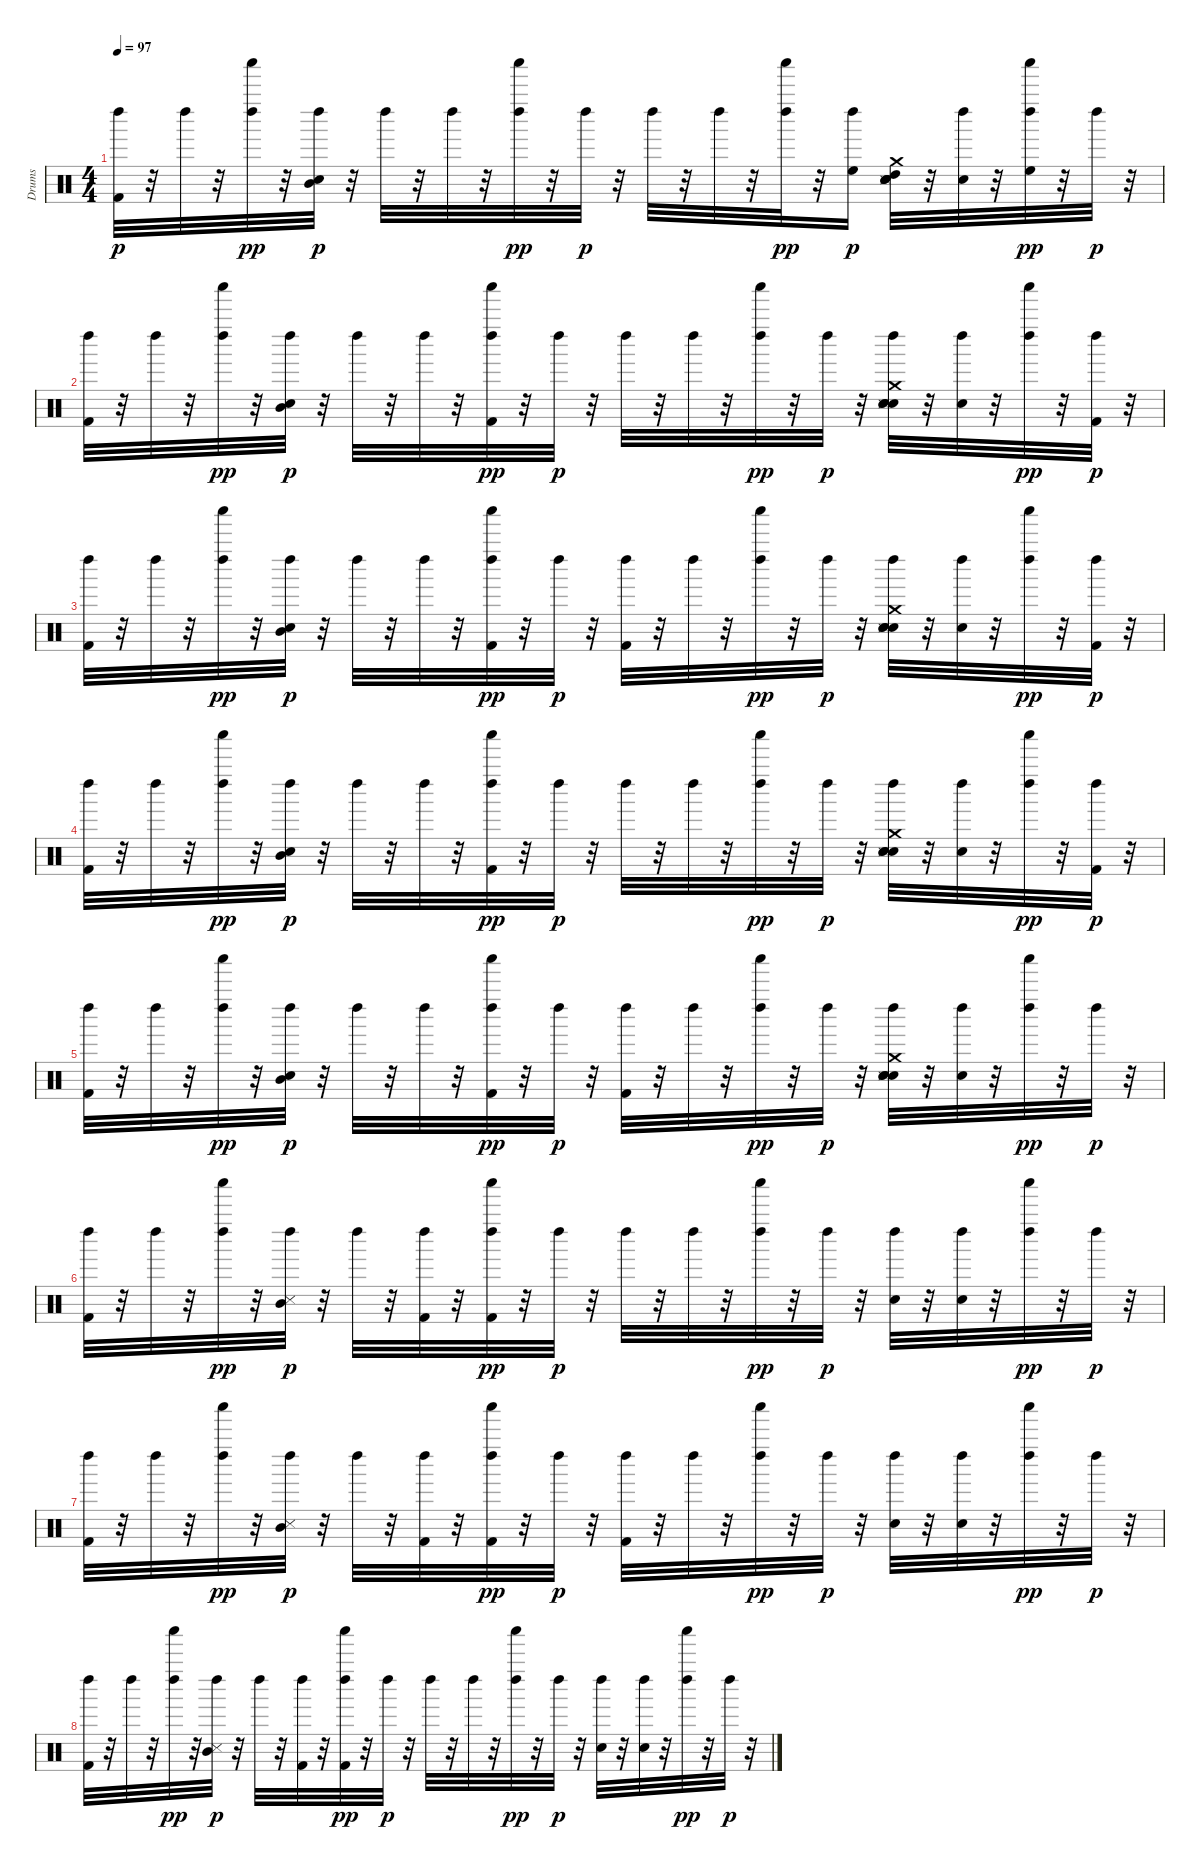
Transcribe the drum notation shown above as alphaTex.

\track ("Drums" "Drums") {instrument percussion}
\staff {score}
\articulation defaults
\ts (4 4)
\tempo 97
\clef neutral
\ks c
("Kick (hit) 2" "Left Maraca (hit)").32{dy p} r.32 "Left Maraca (hit)".32 r.32 ("Shaker (hit)" "Left Maraca (hit)").32{dy pp} r.32 ("Snare (hit) 2" "Mid Tom (hit)" "Left Maraca (hit)").32{dy p} r.32 "Left Maraca (hit)".32 r.32 "Left Maraca (hit)".32 r.32 ("Shaker (hit)" "Left Maraca (hit)").32{dy pp} r.32 "Left Maraca (hit)".32{dy p} r.32 "Left Maraca (hit)".32 r.32 "Left Maraca (hit)".32 r.32 ("Shaker (hit)" "Left Maraca (hit)").32{dy pp} r.32 ("High Floor Tom (hit)" "Left Maraca (hit)").16{dy p} ("Snare (hit) 2" "Electric Snare (hit)" "Hand Clap (hit)" "High Tom (hit)" "Snare (side stick) 3" "Crash medium (hit)").32 r.32 ("Left Maraca (hit)" "Hand Clap (hit)").32 r.32 ("High Floor Tom (hit)" "Shaker (hit)" "Left Maraca (hit)").32{dy pp} r.32 "Left Maraca (hit)".32{dy p} r.32 |
("Kick (hit) 2" "Left Maraca (hit)").32 r.32 "Left Maraca (hit)".32 r.32 ("Shaker (hit)" "Left Maraca (hit)").32{dy pp} r.32 ("Snare (hit) 2" "Mid Tom (hit)" "Left Maraca (hit)").32{dy p} r.32 "Left Maraca (hit)".32 r.32 "Left Maraca (hit)".32 r.32 ("Kick (hit) 2" "Shaker (hit)" "Left Maraca (hit)").32{dy pp} r.32 "Left Maraca (hit)".32{dy p} r.32 "Left Maraca (hit)".32 r.32 "Left Maraca (hit)".32 r.32 ("Shaker (hit)" "Left Maraca (hit)").32{dy pp} r.32 "Left Maraca (hit)".32{dy p} r.32 ("Snare (hit) 2" "Electric Snare (hit)" "Hand Clap (hit)" "Snare (side stick) 3" "Crash medium (hit)" "Left Maraca (hit)").32 r.32 ("Left Maraca (hit)" "Hand Clap (hit)").32 r.32 ("Shaker (hit)" "Left Maraca (hit)").32{dy pp} r.32 ("Kick (hit) 2" "Left Maraca (hit)").32{dy p} r.32 |
("Kick (hit) 2" "Left Maraca (hit)").32 r.32 "Left Maraca (hit)".32 r.32 ("Shaker (hit)" "Left Maraca (hit)").32{dy pp} r.32 ("Snare (hit) 2" "Mid Tom (hit)" "Left Maraca (hit)").32{dy p} r.32 "Left Maraca (hit)".32 r.32 "Left Maraca (hit)".32 r.32 ("Kick (hit) 2" "Shaker (hit)" "Left Maraca (hit)").32{dy pp} r.32 "Left Maraca (hit)".32{dy p} r.32 ("Kick (hit) 2" "Left Maraca (hit)").32 r.32 "Left Maraca (hit)".32 r.32 ("Shaker (hit)" "Left Maraca (hit)").32{dy pp} r.32 "Left Maraca (hit)".32{dy p} r.32 ("Snare (hit) 2" "Electric Snare (hit)" "Hand Clap (hit)" "Snare (side stick) 3" "Crash medium (hit)" "Left Maraca (hit)").32 r.32 ("Left Maraca (hit)" "Hand Clap (hit)").32 r.32 ("Shaker (hit)" "Left Maraca (hit)").32{dy pp} r.32 ("Kick (hit) 2" "Left Maraca (hit)").32{dy p} r.32 |
("Kick (hit) 2" "Left Maraca (hit)").32 r.32 "Left Maraca (hit)".32 r.32 ("Shaker (hit)" "Left Maraca (hit)").32{dy pp} r.32 ("Snare (hit) 2" "Mid Tom (hit)" "Left Maraca (hit)").32{dy p} r.32 "Left Maraca (hit)".32 r.32 "Left Maraca (hit)".32 r.32 ("Kick (hit) 2" "Shaker (hit)" "Left Maraca (hit)").32{dy pp} r.32 "Left Maraca (hit)".32{dy p} r.32 "Left Maraca (hit)".32 r.32 "Left Maraca (hit)".32 r.32 ("Shaker (hit)" "Left Maraca (hit)").32{dy pp} r.32 "Left Maraca (hit)".32{dy p} r.32 ("Snare (hit) 2" "Electric Snare (hit)" "Hand Clap (hit)" "Snare (side stick) 3" "Crash medium (hit)" "Left Maraca (hit)").32 r.32 ("Left Maraca (hit)" "Hand Clap (hit)").32 r.32 ("Shaker (hit)" "Left Maraca (hit)").32{dy pp} r.32 ("Kick (hit) 2" "Left Maraca (hit)").32{dy p} r.32 |
("Kick (hit) 2" "Left Maraca (hit)").32 r.32 "Left Maraca (hit)".32 r.32 ("Shaker (hit)" "Left Maraca (hit)").32{dy pp} r.32 ("Snare (hit) 2" "Mid Tom (hit)" "Left Maraca (hit)").32{dy p} r.32 "Left Maraca (hit)".32 r.32 "Left Maraca (hit)".32 r.32 ("Kick (hit) 2" "Shaker (hit)" "Left Maraca (hit)").32{dy pp} r.32 "Left Maraca (hit)".32{dy p} r.32 ("Kick (hit) 2" "Left Maraca (hit)").32 r.32 "Left Maraca (hit)".32 r.32 ("Shaker (hit)" "Left Maraca (hit)").32{dy pp} r.32 "Left Maraca (hit)".32{dy p} r.32 ("Snare (hit) 2" "Electric Snare (hit)" "Hand Clap (hit)" "Snare (side stick) 3" "Crash medium (hit)" "Left Maraca (hit)").32 r.32 ("Left Maraca (hit)" "Hand Clap (hit)").32 r.32 ("Shaker (hit)" "Left Maraca (hit)").32{dy pp} r.32 "Left Maraca (hit)".32{dy p} r.32 |
("Kick (hit) 2" "Left Maraca (hit)").32 r.32 "Left Maraca (hit)".32 r.32 ("Shaker (hit)" "Left Maraca (hit)").32{dy pp} r.32 ("Mid Tom (hit)" "Snare (side stick) 3" "Left Maraca (hit)").32{dy p} r.32 "Left Maraca (hit)".32 r.32 ("Kick (hit) 2" "Left Maraca (hit)").32 r.32 ("Kick (hit) 2" "Shaker (hit)" "Left Maraca (hit)").32{dy pp} r.32 "Left Maraca (hit)".32{dy p} r.32 "Left Maraca (hit)".32 r.32 "Left Maraca (hit)".32 r.32 ("Shaker (hit)" "Left Maraca (hit)").32{dy pp} r.32 "Left Maraca (hit)".32{dy p} r.32 ("Hand Clap (hit)" "Left Maraca (hit)").32 r.32 ("Left Maraca (hit)" "Hand Clap (hit)").32 r.32 ("Shaker (hit)" "Left Maraca (hit)").32{dy pp} r.32 "Left Maraca (hit)".32{dy p} r.32 |
("Kick (hit) 2" "Left Maraca (hit)").32 r.32 "Left Maraca (hit)".32 r.32 ("Shaker (hit)" "Left Maraca (hit)").32{dy pp} r.32 ("Mid Tom (hit)" "Snare (side stick) 3" "Left Maraca (hit)").32{dy p} r.32 "Left Maraca (hit)".32 r.32 ("Kick (hit) 2" "Left Maraca (hit)").32 r.32 ("Kick (hit) 2" "Shaker (hit)" "Left Maraca (hit)").32{dy pp} r.32 "Left Maraca (hit)".32{dy p} r.32 ("Kick (hit) 2" "Left Maraca (hit)").32 r.32 "Left Maraca (hit)".32 r.32 ("Shaker (hit)" "Left Maraca (hit)").32{dy pp} r.32 "Left Maraca (hit)".32{dy p} r.32 ("Hand Clap (hit)" "Left Maraca (hit)").32 r.32 ("Left Maraca (hit)" "Hand Clap (hit)").32 r.32 ("Shaker (hit)" "Left Maraca (hit)").32{dy pp} r.32 "Left Maraca (hit)".32{dy p} r.32 |
("Kick (hit) 2" "Left Maraca (hit)").32 r.32 "Left Maraca (hit)".32 r.32 ("Shaker (hit)" "Left Maraca (hit)").32{dy pp} r.32 ("Mid Tom (hit)" "Snare (side stick) 3" "Left Maraca (hit)").32{dy p} r.32 "Left Maraca (hit)".32 r.32 ("Kick (hit) 2" "Left Maraca (hit)").32 r.32 ("Kick (hit) 2" "Shaker (hit)" "Left Maraca (hit)").32{dy pp} r.32 "Left Maraca (hit)".32{dy p} r.32 "Left Maraca (hit)".32 r.32 "Left Maraca (hit)".32 r.32 ("Shaker (hit)" "Left Maraca (hit)").32{dy pp} r.32 "Left Maraca (hit)".32{dy p} r.32 ("Hand Clap (hit)" "Left Maraca (hit)").32 r.32 ("Left Maraca (hit)" "Hand Clap (hit)").32 r.32 ("Shaker (hit)" "Left Maraca (hit)").32{dy pp} r.32 "Left Maraca (hit)".32{dy p} r.32
